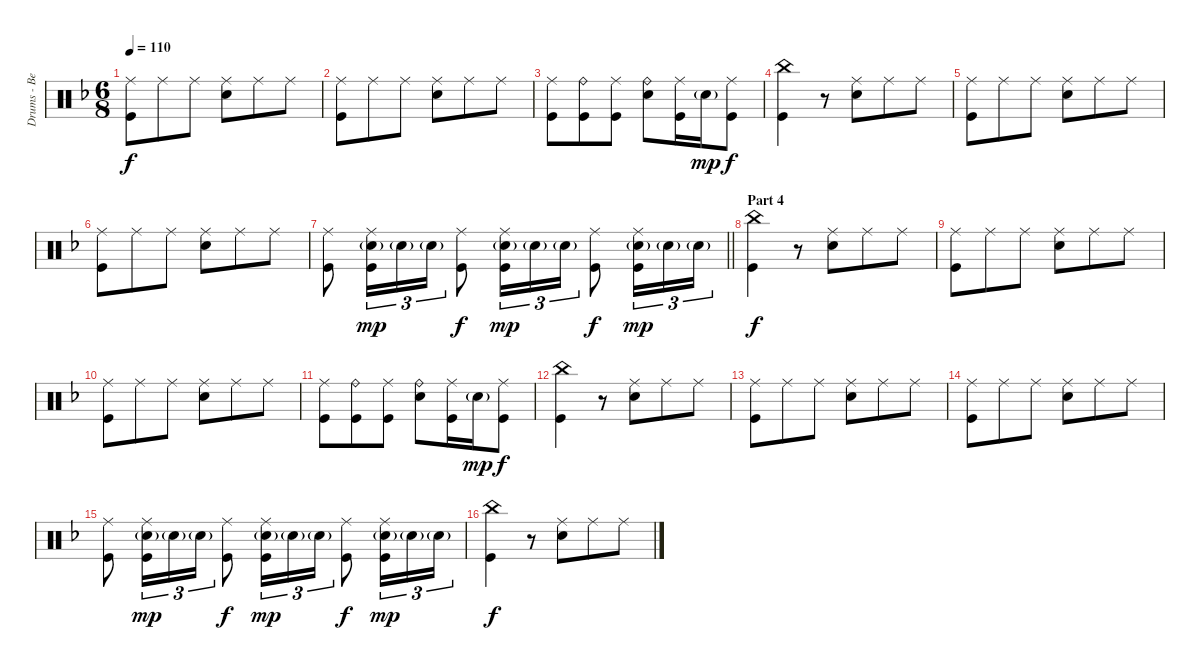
\track ("Drums - Ben Johnston" "Drums - Be") {instrument percussion}
\staff {score}
\articulation defaults
\ts (6 8)
\tempo 110
\clef neutral
\ks dminor
("Ride (middle)" "Kick (hit)").8{dy f} "Ride (middle)".8 "Ride (middle)".8 ("Ride (middle)" "Snare (hit) 2").8 "Ride (middle)".8 "Ride (middle)".8 |
("Ride (middle)" "Kick (hit)").8 "Ride (middle)".8 "Ride (middle)".8 ("Ride (middle)" "Snare (hit) 2").8 "Ride (middle)".8 "Ride (middle)".8 |
("Ride (middle)" "Kick (hit)").8 ("Ride (bell)" "Kick (hit)").8 ("Ride (middle)" "Kick (hit)").8 ("Ride (bell)" "Snare (hit) 2").8 ("Ride (middle)" "Kick (hit)").16 "Snare (hit) 2"{g}.16{dy mp} ("Ride (middle)" "Kick (hit)").8{dy f} |
("China (hit)" "Kick (hit)").4 r.8 ("Ride (middle)" "Snare (hit) 2").8 "Ride (middle)".8 "Ride (middle)".8 |
("Ride (middle)" "Kick (hit)").8 "Ride (middle)".8 "Ride (middle)".8 ("Ride (middle)" "Snare (hit) 2").8 "Ride (middle)".8 "Ride (middle)".8 |
("Ride (middle)" "Kick (hit)").8 "Ride (middle)".8 "Ride (middle)".8 ("Ride (middle)" "Snare (hit) 2").8 "Ride (middle)".8 "Ride (middle)".8 |
\barLineRight lightlight
("Ride (middle)" "Kick (hit)").8 ("Ride (middle)" "Snare (hit) 2"{g} "Kick (hit)").16{tu (3 2) dy mp} "Snare (hit) 2"{g}.16{tu (3 2)} "Snare (hit) 2"{g}.16{tu (3 2)} ("Ride (middle)" "Kick (hit)").8{dy f} ("Ride (middle)" "Snare (hit) 2"{g} "Kick (hit)").16{tu (3 2) dy mp} "Snare (hit) 2"{g}.16{tu (3 2)} "Snare (hit) 2"{g}.16{tu (3 2)} ("Ride (middle)" "Kick (hit)").8{dy f} ("Ride (middle)" "Snare (hit) 2"{g} "Kick (hit)").16{tu (3 2) dy mp} "Snare (hit) 2"{g}.16{tu (3 2)} "Snare (hit) 2"{g}.16{tu (3 2)} |
\section ("" "Part 4")
("China (hit)" "Kick (hit)").4{dy f} r.8 ("Ride (middle)" "Snare (hit) 2").8 "Ride (middle)".8 "Ride (middle)".8 |
("Ride (middle)" "Kick (hit)").8 "Ride (middle)".8 "Ride (middle)".8 ("Ride (middle)" "Snare (hit) 2").8 "Ride (middle)".8 "Ride (middle)".8 |
("Ride (middle)" "Kick (hit)").8 "Ride (middle)".8 "Ride (middle)".8 ("Ride (middle)" "Snare (hit) 2").8 "Ride (middle)".8 "Ride (middle)".8 |
("Ride (middle)" "Kick (hit)").8 ("Ride (bell)" "Kick (hit)").8 ("Ride (middle)" "Kick (hit)").8 ("Ride (bell)" "Snare (hit) 2").8 ("Ride (middle)" "Kick (hit)").16 "Snare (hit) 2"{g}.16{dy mp} ("Ride (middle)" "Kick (hit)").8{dy f} |
("China (hit)" "Kick (hit)").4 r.8 ("Ride (middle)" "Snare (hit) 2").8 "Ride (middle)".8 "Ride (middle)".8 |
("Ride (middle)" "Kick (hit)").8 "Ride (middle)".8 "Ride (middle)".8 ("Ride (middle)" "Snare (hit) 2").8 "Ride (middle)".8 "Ride (middle)".8 |
("Ride (middle)" "Kick (hit)").8 "Ride (middle)".8 "Ride (middle)".8 ("Ride (middle)" "Snare (hit) 2").8 "Ride (middle)".8 "Ride (middle)".8 |
("Ride (middle)" "Kick (hit)").8 ("Ride (middle)" "Snare (hit) 2"{g} "Kick (hit)").16{tu (3 2) dy mp} "Snare (hit) 2"{g}.16{tu (3 2)} "Snare (hit) 2"{g}.16{tu (3 2)} ("Ride (middle)" "Kick (hit)").8{dy f} ("Ride (middle)" "Snare (hit) 2"{g} "Kick (hit)").16{tu (3 2) dy mp} "Snare (hit) 2"{g}.16{tu (3 2)} "Snare (hit) 2"{g}.16{tu (3 2)} ("Ride (middle)" "Kick (hit)").8{dy f} ("Ride (middle)" "Snare (hit) 2"{g} "Kick (hit)").16{tu (3 2) dy mp} "Snare (hit) 2"{g}.16{tu (3 2)} "Snare (hit) 2"{g}.16{tu (3 2)} |
("China (hit)" "Kick (hit)").4{dy f} r.8 ("Ride (middle)" "Snare (hit) 2").8 "Ride (middle)".8 "Ride (middle)".8
